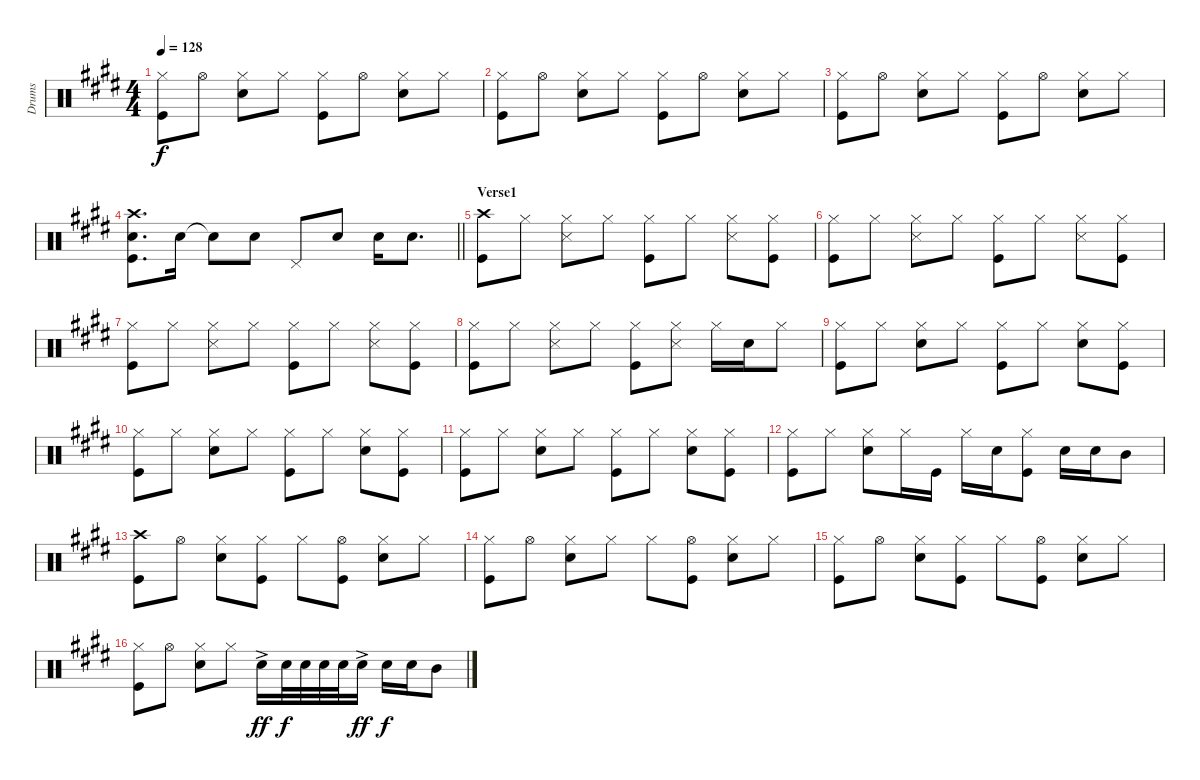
\track ("Drums" "Drums") {instrument percussion}
\staff {score}
\articulation defaults
\ts (4 4)
\tempo 128
\clef neutral
\ks c#minor
("Kick (hit)" "Hi-Hat (closed)").8{dy f} "Hi-Hat (open)".8 ("Hi-Hat (closed)" "Snare (hit) 2").8 "Hi-Hat (closed)".8 ("Hi-Hat (closed)" "Kick (hit)").8 "Hi-Hat (open)".8 ("Hi-Hat (closed)" "Snare (hit) 2").8 "Hi-Hat (closed)".8 |
("Kick (hit)" "Hi-Hat (closed)").8 "Hi-Hat (open)".8 ("Hi-Hat (closed)" "Snare (hit) 2").8 "Hi-Hat (closed)".8 ("Hi-Hat (closed)" "Kick (hit)").8 "Hi-Hat (open)".8 ("Hi-Hat (closed)" "Snare (hit) 2").8 "Hi-Hat (closed)".8 |
("Kick (hit)" "Hi-Hat (closed)").8 "Hi-Hat (open)".8 ("Hi-Hat (closed)" "Snare (hit) 2").8 "Hi-Hat (closed)".8 ("Hi-Hat (closed)" "Kick (hit)").8 "Hi-Hat (open)".8 ("Hi-Hat (closed)" "Snare (hit) 2").8 "Hi-Hat (closed)".8 |
\barLineRight lightlight
("Crash high (hit)" "Kick (hit)" "Snare (hit) 2").8{d} "Snare (hit) 2".16 "Snare (hit) 2"{t}.8 "Snare (hit) 2".8 "Pedal Hi-Hat (hit)".8 "Snare (hit) 2".8 "Snare (hit) 2".16 "Snare (hit) 2".8{d} |
\section ("" "Verse1")
("Crash high (hit)" "Kick (hit)").8 "Hi-Hat (closed)".8 ("Hi-Hat (closed)" "Snare (side stick) 3").8 "Hi-Hat (closed)".8 ("Hi-Hat (closed)" "Kick (hit)").8 "Hi-Hat (closed)".8 ("Hi-Hat (closed)" "Snare (side stick) 3").8 ("Hi-Hat (closed)" "Kick (hit)").8 |
("Hi-Hat (closed)" "Kick (hit)").8 "Hi-Hat (closed)".8 ("Hi-Hat (closed)" "Snare (side stick) 3").8 "Hi-Hat (closed)".8 ("Hi-Hat (closed)" "Kick (hit)").8 "Hi-Hat (closed)".8 ("Snare (side stick) 3" "Hi-Hat (closed)").8 ("Hi-Hat (closed)" "Kick (hit)").8 |
("Hi-Hat (closed)" "Kick (hit)").8 "Hi-Hat (closed)".8 ("Hi-Hat (closed)" "Snare (side stick) 3").8 "Hi-Hat (closed)".8 ("Hi-Hat (closed)" "Kick (hit)").8 "Hi-Hat (closed)".8 ("Snare (side stick) 3" "Hi-Hat (closed)").8 ("Hi-Hat (closed)" "Kick (hit)").8 |
("Hi-Hat (closed)" "Kick (hit)").8 "Hi-Hat (closed)".8 ("Hi-Hat (closed)" "Snare (side stick) 3").8 "Hi-Hat (closed)".8 ("Hi-Hat (closed)" "Kick (hit)").8 ("Hi-Hat (closed)" "Snare (side stick) 3").8 "Hi-Hat (closed)".16 "Snare (hit) 2".16 "Hi-Hat (closed)".8 |
("Hi-Hat (closed)" "Kick (hit)").8 "Hi-Hat (closed)".8 ("Hi-Hat (closed)" "Snare (hit) 2").8 "Hi-Hat (closed)".8 ("Hi-Hat (closed)" "Kick (hit)").8 "Hi-Hat (closed)".8 ("Hi-Hat (closed)" "Snare (hit) 2").8 ("Hi-Hat (closed)" "Kick (hit)").8 |
("Hi-Hat (closed)" "Kick (hit)").8 "Hi-Hat (closed)".8 ("Hi-Hat (closed)" "Snare (hit) 2").8 "Hi-Hat (closed)".8 ("Hi-Hat (closed)" "Kick (hit)").8 "Hi-Hat (closed)".8 ("Hi-Hat (closed)" "Snare (hit) 2").8 ("Hi-Hat (closed)" "Kick (hit)").8 |
("Hi-Hat (closed)" "Kick (hit)").8 "Hi-Hat (closed)".8 ("Hi-Hat (closed)" "Snare (hit) 2").8 "Hi-Hat (closed)".8 ("Hi-Hat (closed)" "Kick (hit)").8 "Hi-Hat (closed)".8 ("Hi-Hat (closed)" "Snare (hit) 2").8 ("Hi-Hat (closed)" "Kick (hit)").8 |
("Hi-Hat (closed)" "Kick (hit)").8 "Hi-Hat (closed)".8 ("Hi-Hat (closed)" "Snare (hit) 2").8 "Hi-Hat (closed)".16 "Kick (hit)".16 "Hi-Hat (closed)".16 "Snare (hit) 2".16 ("Kick (hit)" "Hi-Hat (closed)").8 "Snare (hit) 2".16 "Snare (hit) 2".16 "Mid Tom (hit)".8 |
("Crash high (hit)" "Kick (hit)").8 "Hi-Hat (open)".8 ("Snare (hit) 2" "Hi-Hat (closed)").8 ("Kick (hit)" "Hi-Hat (closed)").8 "Hi-Hat (closed)".8 ("Hi-Hat (open)" "Kick (hit)").8 ("Snare (hit) 2" "Hi-Hat (closed)").8 "Hi-Hat (closed)".8 |
("Hi-Hat (closed)" "Kick (hit)").8 "Hi-Hat (open)".8 ("Snare (hit) 2" "Hi-Hat (closed)").8 "Hi-Hat (closed)".8 "Hi-Hat (closed)".8 ("Hi-Hat (open)" "Kick (hit)").8 ("Hi-Hat (closed)" "Snare (hit) 2").8 "Hi-Hat (closed)".8 |
("Hi-Hat (closed)" "Kick (hit)").8 "Hi-Hat (open)".8 ("Hi-Hat (closed)" "Snare (hit) 2").8 ("Hi-Hat (closed)" "Kick (hit)").8 "Hi-Hat (closed)".8 ("Hi-Hat (open)" "Kick (hit)").8 ("Hi-Hat (closed)" "Snare (hit) 2").8 "Hi-Hat (closed)".8 |
("Hi-Hat (closed)" "Kick (hit)").8 "Hi-Hat (open)".8 ("Hi-Hat (closed)" "Snare (hit) 2").8 "Hi-Hat (closed)".8 "Snare (hit) 2"{ac}.16{dy ff} "Snare (hit) 2".32{dy f} "Snare (hit) 2".32 "Snare (hit) 2".32 "Snare (hit) 2".32 "Snare (hit) 2"{ac}.16{dy ff} "Snare (hit) 2".16{dy f} "Snare (hit) 2".16 "Mid Tom (hit)".8
